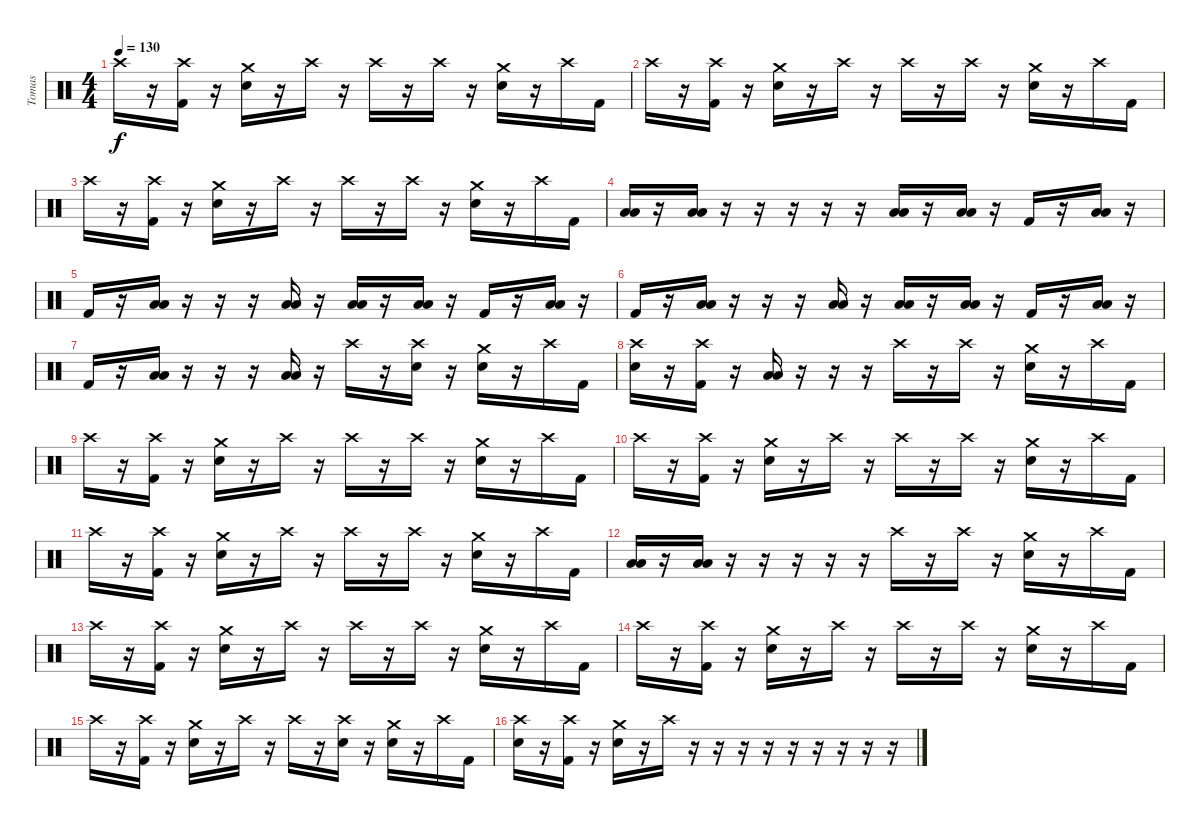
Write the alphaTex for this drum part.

\track ("Tomas" "Tomas") {instrument percussion}
\staff {score}
\articulation defaults
\ts (4 4)
\tempo 130
\clef neutral
\ks c "Crash high (hit)".16{dy f}
r.16 ("Kick (hit) 2" "Crash high (hit)").16 r.16 ("Electric Snare (hit)" "Crash medium (hit)").16 r.16 "Crash high (hit)".16 r.16 "Crash high (hit)".16 r.16 "Crash high (hit)".16 r.16 ("Electric Snare (hit)" "Crash medium (hit)").16 r.16 "Crash high (hit)".16 "Kick (hit) 2".16 |
"Crash high (hit)".16 r.16 ("Kick (hit) 2" "Crash high (hit)").16 r.16 ("Electric Snare (hit)" "Crash medium (hit)").16 r.16 "Crash high (hit)".16 r.16 "Crash high (hit)".16 r.16 "Crash high (hit)".16 r.16 ("Electric Snare (hit)" "Crash medium (hit)").16 r.16 "Crash high (hit)".16 "Kick (hit) 2".16 |
"Crash high (hit)".16 r.16 ("Kick (hit) 2" "Crash high (hit)").16 r.16 ("Electric Snare (hit)" "Crash medium (hit)").16 r.16 "Crash high (hit)".16 r.16 "Crash high (hit)".16 r.16 "Crash high (hit)".16 r.16 ("Electric Snare (hit)" "Crash medium (hit)").16 r.16 "Crash high (hit)".16 "Kick (hit) 2".16 |
("Low Tom (hit)" "Low Floor Tom (hit)").16 r.16 ("Low Tom (hit)" "Low Floor Tom (hit)").16 r.16 r.16 r.16 r.16 r.16 ("Low Tom (hit)" "Low Floor Tom (hit)").16 r.16 ("Low Tom (hit)" "Low Floor Tom (hit)").16 r.16 "Kick (hit) 2".16 r.16 ("Low Tom (hit)" "Low Floor Tom (hit)").16 r.16 |
"Kick (hit) 2".16 r.16 ("Low Tom (hit)" "Low Floor Tom (hit)").16 r.16 r.16 r.16 ("Low Tom (hit)" "Low Floor Tom (hit)").16 r.16 ("Low Tom (hit)" "Low Floor Tom (hit)").16 r.16 ("Low Tom (hit)" "Low Floor Tom (hit)").16 r.16 "Kick (hit) 2".16 r.16 ("Low Tom (hit)" "Low Floor Tom (hit)").16 r.16 |
"Kick (hit) 2".16 r.16 ("Low Tom (hit)" "Low Floor Tom (hit)").16 r.16 r.16 r.16 ("Low Tom (hit)" "Low Floor Tom (hit)").16 r.16 ("Low Tom (hit)" "Low Floor Tom (hit)").16 r.16 ("Low Tom (hit)" "Low Floor Tom (hit)").16 r.16 "Kick (hit) 2".16 r.16 ("Low Tom (hit)" "Low Floor Tom (hit)").16 r.16 |
"Kick (hit) 2".16 r.16 ("Low Tom (hit)" "Low Floor Tom (hit)").16 r.16 r.16 r.16 ("Low Tom (hit)" "Low Floor Tom (hit)").16 r.16 "Crash high (hit)".16 r.16 ("Snare (hit) 2" "Crash high (hit)").16 r.16 ("Electric Snare (hit)" "Crash medium (hit)").16 r.16 "Crash high (hit)".16 "Kick (hit) 2".16 |
("Snare (hit) 2" "Crash high (hit)").16 r.16 ("Kick (hit) 2" "Crash high (hit)").16 r.16 ("Low Tom (hit)" "Low Floor Tom (hit)").16 r.16 r.16 r.16 "Crash high (hit)".16 r.16 "Crash high (hit)".16 r.16 ("Electric Snare (hit)" "Crash medium (hit)").16 r.16 "Crash high (hit)".16 "Kick (hit) 2".16 |
"Crash high (hit)".16 r.16 ("Kick (hit) 2" "Crash high (hit)").16 r.16 ("Electric Snare (hit)" "Crash medium (hit)").16 r.16 "Crash high (hit)".16 r.16 "Crash high (hit)".16 r.16 "Crash high (hit)".16 r.16 ("Electric Snare (hit)" "Crash medium (hit)").16 r.16 "Crash high (hit)".16 "Kick (hit) 2".16 |
"Crash high (hit)".16 r.16 ("Kick (hit) 2" "Crash high (hit)").16 r.16 ("Electric Snare (hit)" "Crash medium (hit)").16 r.16 "Crash high (hit)".16 r.16 "Crash high (hit)".16 r.16 "Crash high (hit)".16 r.16 ("Electric Snare (hit)" "Crash medium (hit)").16 r.16 "Crash high (hit)".16 "Kick (hit) 2".16 |
"Crash high (hit)".16 r.16 ("Kick (hit) 2" "Crash high (hit)").16 r.16 ("Electric Snare (hit)" "Crash medium (hit)").16 r.16 "Crash high (hit)".16 r.16 "Crash high (hit)".16 r.16 "Crash high (hit)".16 r.16 ("Electric Snare (hit)" "Crash medium (hit)").16 r.16 "Crash high (hit)".16 "Kick (hit) 2".16 |
("Low Tom (hit)" "Low Floor Tom (hit)").16 r.16 ("Low Tom (hit)" "Low Floor Tom (hit)").16 r.16 r.16 r.16 r.16 r.16 "Crash high (hit)".16 r.16 "Crash high (hit)".16 r.16 ("Electric Snare (hit)" "Crash medium (hit)").16 r.16 "Crash high (hit)".16 "Kick (hit) 2".16 |
"Crash high (hit)".16 r.16 ("Kick (hit) 2" "Crash high (hit)").16 r.16 ("Electric Snare (hit)" "Crash medium (hit)").16 r.16 "Crash high (hit)".16 r.16 "Crash high (hit)".16 r.16 "Crash high (hit)".16 r.16 ("Electric Snare (hit)" "Crash medium (hit)").16 r.16 "Crash high (hit)".16 "Kick (hit) 2".16 |
"Crash high (hit)".16 r.16 ("Kick (hit) 2" "Crash high (hit)").16 r.16 ("Electric Snare (hit)" "Crash medium (hit)").16 r.16 "Crash high (hit)".16 r.16 "Crash high (hit)".16 r.16 "Crash high (hit)".16 r.16 ("Electric Snare (hit)" "Crash medium (hit)").16 r.16 "Crash high (hit)".16 "Kick (hit) 2".16 |
"Crash high (hit)".16 r.16 ("Kick (hit) 2" "Crash high (hit)").16 r.16 ("Electric Snare (hit)" "Crash medium (hit)").16 r.16 "Crash high (hit)".16 r.16 "Crash high (hit)".16 r.16 ("Snare (hit) 2" "Crash high (hit)").16 r.16 ("Electric Snare (hit)" "Crash medium (hit)").16 r.16 "Crash high (hit)".16 "Kick (hit) 2".16 |
("Snare (hit) 2" "Crash high (hit)").16 r.16 ("Kick (hit) 2" "Crash high (hit)").16 r.16 ("Electric Snare (hit)" "Crash medium (hit)").16 r.16 "Crash high (hit)".16 r.16 r.16 r.16 r.16 r.16 r.16 r.16 r.16 r.16
